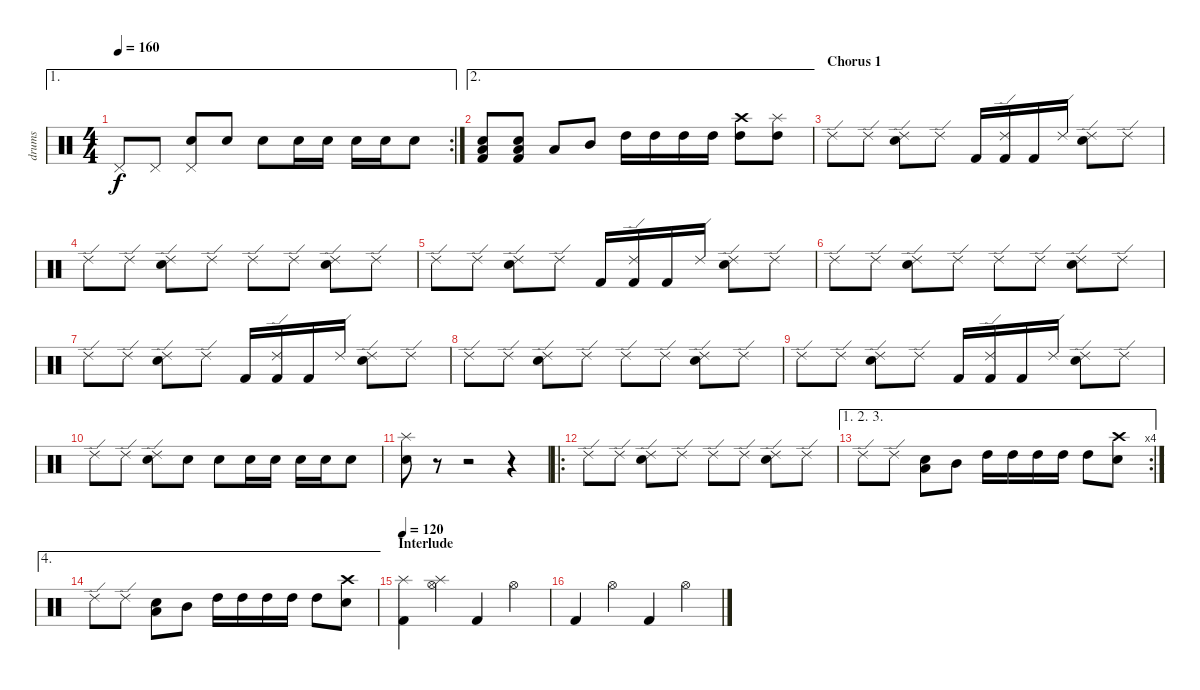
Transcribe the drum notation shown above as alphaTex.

\track ("drums" "drums") {instrument percussion}
\staff {score}
\articulation defaults
\ae 1
\rc 2
\ts (4 4)
\tempo 160
\clef neutral
\ks c "Pedal Hi-Hat (hit)".8{dy f} "Pedal Hi-Hat (hit)".8
("Electric Snare (hit)" "Pedal Hi-Hat (hit)").8 "Electric Snare (hit)".8 "Electric Snare (hit)".8 "Electric Snare (hit)".16 "Electric Snare (hit)".16 "Electric Snare (hit)".16 "Electric Snare (hit)".16 "Electric Snare (hit)".8 |
\ae 2
("Electric Snare (hit)" "Low Tom (hit)" "Kick (hit) 2").8 ("Low Tom (hit)" "Electric Snare (hit)" "Kick (hit) 2").8 "Low Tom (hit)".8 "Mid Tom (hit)".8 "High Tom (hit)".16 "High Tom (hit)".16 "High Tom (hit)".16 "High Tom (hit)".16 ("Crash high (hit)" "High Tom (hit)").8 ("Splash (hit)" "High Tom (hit)").8 |
\section ("" "Chorus 1")
"Ride (edge) 2".8 "Ride (edge) 2".8 ("Electric Snare (hit)" "Ride (edge) 2").8 "Ride (edge) 2".8 "Kick (hit) 2".16 ("Ride (edge) 2" "Kick (hit) 2").16 "Kick (hit) 2".16 "Ride (edge) 2".16 ("Electric Snare (hit)" "Ride (edge) 2").8 "Ride (edge) 2".8 |
"Ride (edge) 2".8 "Ride (edge) 2".8 ("Electric Snare (hit)" "Ride (edge) 2").8 "Ride (edge) 2".8 "Ride (edge) 2".8 "Ride (edge) 2".8 ("Electric Snare (hit)" "Ride (edge) 2").8 "Ride (edge) 2".8 |
"Ride (edge) 2".8 "Ride (edge) 2".8 ("Electric Snare (hit)" "Ride (edge) 2").8 "Ride (edge) 2".8 "Kick (hit) 2".16 ("Ride (edge) 2" "Kick (hit) 2").16 "Kick (hit) 2".16 "Ride (edge) 2".16 ("Electric Snare (hit)" "Ride (edge) 2").8 "Ride (edge) 2".8 |
"Ride (edge) 2".8 "Ride (edge) 2".8 ("Electric Snare (hit)" "Ride (edge) 2").8 "Ride (edge) 2".8 "Ride (edge) 2".8 "Ride (edge) 2".8 ("Electric Snare (hit)" "Ride (edge) 2").8 "Ride (edge) 2".8 |
"Ride (edge) 2".8 "Ride (edge) 2".8 ("Electric Snare (hit)" "Ride (edge) 2").8 "Ride (edge) 2".8 "Kick (hit) 2".16 ("Ride (edge) 2" "Kick (hit) 2").16 "Kick (hit) 2".16 "Ride (edge) 2".16 ("Electric Snare (hit)" "Ride (edge) 2").8 "Ride (edge) 2".8 |
"Ride (edge) 2".8 "Ride (edge) 2".8 ("Electric Snare (hit)" "Ride (edge) 2").8 "Ride (edge) 2".8 "Ride (edge) 2".8 "Ride (edge) 2".8 ("Electric Snare (hit)" "Ride (edge) 2").8 "Ride (edge) 2".8 |
"Ride (edge) 2".8 "Ride (edge) 2".8 ("Electric Snare (hit)" "Ride (edge) 2").8 "Ride (edge) 2".8 "Kick (hit) 2".16 ("Ride (edge) 2" "Kick (hit) 2").16 "Kick (hit) 2".16 "Ride (edge) 2".16 ("Electric Snare (hit)" "Ride (edge) 2").8 "Ride (edge) 2".8 |
"Ride (edge) 2".8 "Ride (edge) 2".8 ("Electric Snare (hit)" "Ride (edge) 2").8 "Electric Snare (hit)".8 "Electric Snare (hit)".8 "Electric Snare (hit)".16 "Electric Snare (hit)".16 "Electric Snare (hit)".16 "Electric Snare (hit)".16 "Electric Snare (hit)".8 |
("Splash (hit)" "Snare (hit) 2").8 r.8 r.2 r.4 |
\ro "Ride (edge) 2".8 "Ride (edge) 2".8
("Electric Snare (hit)" "Ride (edge) 2").8 "Ride (edge) 2".8 "Ride (edge) 2".8 "Ride (edge) 2".8 ("Electric Snare (hit)" "Ride (edge) 2").8 "Ride (edge) 2".8 |
\ae (1 2 3)
\rc 4 "Ride (edge) 2".8 "Ride (edge) 2".8
("Electric Snare (hit)" "Low Tom (hit)").8 "Mid Tom (hit)".8 "High Tom (hit)".16 "High Tom (hit)".16 "High Tom (hit)".16 "High Tom (hit)".16 "High Tom (hit)".8 ("Crash high (hit)" "Electric Snare (hit)").8 |
\ae 4 "Ride (edge) 2".8 "Ride (edge) 2".8
("Electric Snare (hit)" "Low Tom (hit)").8 "Mid Tom (hit)".8 "High Tom (hit)".16 "High Tom (hit)".16 "High Tom (hit)".16 "High Tom (hit)".16 "High Tom (hit)".8 ("Crash high (hit)" "Electric Snare (hit)").8 |
\section ("" "Interlude")
\tempo 120
("Splash (hit)" "Kick (hit) 2").4 ("Splash (hit)" "Hi-Hat (open)").4 "Kick (hit) 2".4 "Hi-Hat (open)".4 |
"Kick (hit) 2".4 "Hi-Hat (open)".4 "Kick (hit) 2".4 "Hi-Hat (open)".4
